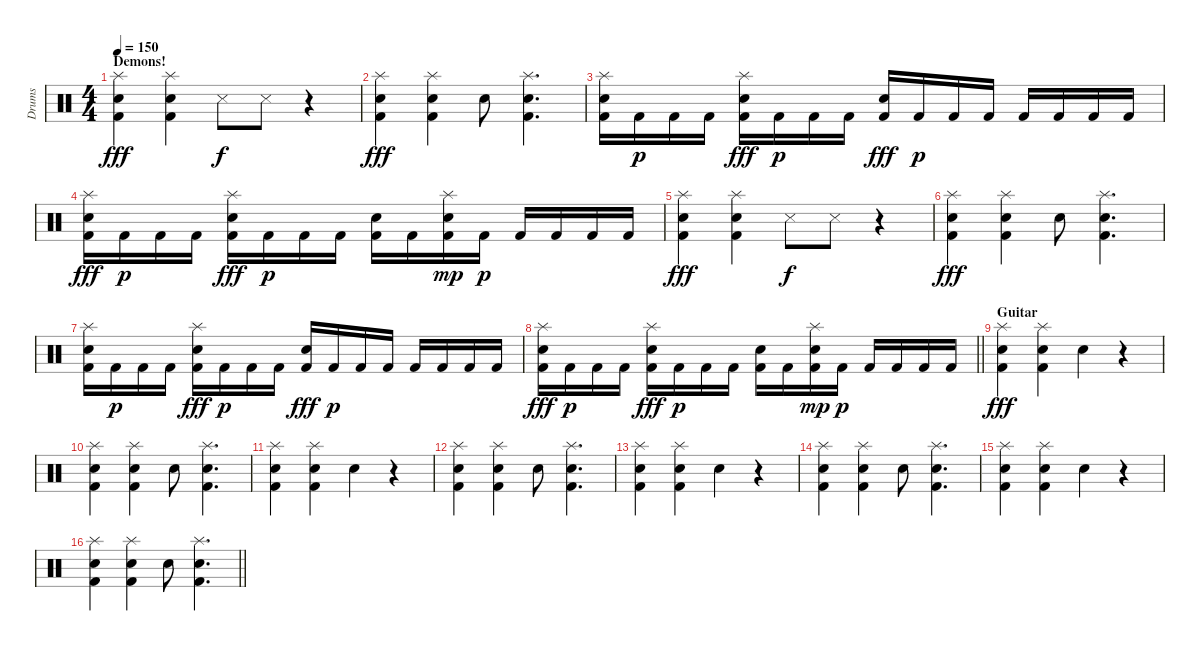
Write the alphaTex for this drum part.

\track ("Drums" "Drums") {instrument percussion}
\staff {score}
\articulation defaults
\ts (4 4)
\section ("" "Demons!")
\tempo 150
\clef neutral
\ks c
("Splash (hit)" "Electric Snare (hit)" "Kick (hit) 2").4{dy fff} ("Splash (hit)" "Electric Snare (hit)" "Kick (hit) 2").4 "Metronome (hit)".8{dy f} "Metronome (hit)".8 r.4 |
("Splash (hit)" "Electric Snare (hit)" "Kick (hit) 2").4{dy fff} ("Splash (hit)" "Electric Snare (hit)" "Kick (hit) 2").4 "Hand Clap (hit)".8 ("Splash (hit)" "Electric Snare (hit)" "Kick (hit) 2").4{d} |
("Splash (hit)" "Electric Snare (hit)" "Kick (hit) 2").16 "Kick (hit) 2".16{dy p} "Kick (hit) 2".16 "Kick (hit) 2".16 ("Splash (hit)" "Electric Snare (hit)" "Kick (hit) 2").16{dy fff} "Kick (hit) 2".16{dy p} "Kick (hit) 2".16 "Kick (hit) 2".16 ("Hand Clap (hit)" "Kick (hit) 2").16{dy fff} "Kick (hit) 2".16{dy p} "Kick (hit) 2".16 "Kick (hit) 2".16 "Kick (hit) 2".16 "Kick (hit) 2".16 "Kick (hit) 2".16 "Kick (hit) 2".16 |
("Splash (hit)" "Electric Snare (hit)" "Kick (hit) 2").16{dy fff} "Kick (hit) 2".16{dy p} "Kick (hit) 2".16 "Kick (hit) 2".16 ("Splash (hit)" "Electric Snare (hit)" "Kick (hit) 2").16{dy fff} "Kick (hit) 2".16{dy p} "Kick (hit) 2".16 "Kick (hit) 2".16 ("Hand Clap (hit)" "Kick (hit) 2").16 "Kick (hit) 2".16 ("Splash (hit)" "Electric Snare (hit)" "Kick (hit) 2").16{dy mp} "Kick (hit) 2".16{dy p} "Kick (hit) 2".16 "Kick (hit) 2".16 "Kick (hit) 2".16 "Kick (hit) 2".16 |
("Splash (hit)" "Electric Snare (hit)" "Kick (hit) 2").4{dy fff} ("Splash (hit)" "Electric Snare (hit)" "Kick (hit) 2").4 "Metronome (hit)".8{dy f} "Metronome (hit)".8 r.4 |
("Splash (hit)" "Electric Snare (hit)" "Kick (hit) 2").4{dy fff} ("Splash (hit)" "Electric Snare (hit)" "Kick (hit) 2").4 "Hand Clap (hit)".8 ("Splash (hit)" "Electric Snare (hit)" "Kick (hit) 2").4{d} |
("Splash (hit)" "Electric Snare (hit)" "Kick (hit) 2").16 "Kick (hit) 2".16{dy p} "Kick (hit) 2".16 "Kick (hit) 2".16 ("Splash (hit)" "Electric Snare (hit)" "Kick (hit) 2").16{dy fff} "Kick (hit) 2".16{dy p} "Kick (hit) 2".16 "Kick (hit) 2".16 ("Hand Clap (hit)" "Kick (hit) 2").16{dy fff} "Kick (hit) 2".16{dy p} "Kick (hit) 2".16 "Kick (hit) 2".16 "Kick (hit) 2".16 "Kick (hit) 2".16 "Kick (hit) 2".16 "Kick (hit) 2".16 |
\barLineRight lightlight
("Splash (hit)" "Electric Snare (hit)" "Kick (hit) 2").16{dy fff} "Kick (hit) 2".16{dy p} "Kick (hit) 2".16 "Kick (hit) 2".16 ("Splash (hit)" "Electric Snare (hit)" "Kick (hit) 2").16{dy fff} "Kick (hit) 2".16{dy p} "Kick (hit) 2".16 "Kick (hit) 2".16 ("Hand Clap (hit)" "Kick (hit) 2").16 "Kick (hit) 2".16 ("Splash (hit)" "Electric Snare (hit)" "Kick (hit) 2").16{dy mp} "Kick (hit) 2".16{dy p} "Kick (hit) 2".16 "Kick (hit) 2".16 "Kick (hit) 2".16 "Kick (hit) 2".16 |
\section ("" "Guitar")
("Splash (hit)" "Electric Snare (hit)" "Kick (hit) 2").4{dy fff} ("Splash (hit)" "Electric Snare (hit)" "Kick (hit) 2").4 "Hand Clap (hit)".4 r.4 |
("Splash (hit)" "Electric Snare (hit)" "Kick (hit) 2").4 ("Splash (hit)" "Electric Snare (hit)" "Kick (hit) 2").4 "Hand Clap (hit)".8 ("Splash (hit)" "Electric Snare (hit)" "Kick (hit) 2").4{d} |
("Splash (hit)" "Electric Snare (hit)" "Kick (hit) 2").4 ("Splash (hit)" "Electric Snare (hit)" "Kick (hit) 2").4 "Hand Clap (hit)".4 r.4 |
("Splash (hit)" "Electric Snare (hit)" "Kick (hit) 2").4 ("Splash (hit)" "Electric Snare (hit)" "Kick (hit) 2").4 "Hand Clap (hit)".8 ("Splash (hit)" "Electric Snare (hit)" "Kick (hit) 2").4{d} |
("Splash (hit)" "Electric Snare (hit)" "Kick (hit) 2").4 ("Splash (hit)" "Electric Snare (hit)" "Kick (hit) 2").4 "Hand Clap (hit)".4 r.4 |
("Splash (hit)" "Electric Snare (hit)" "Kick (hit) 2").4 ("Splash (hit)" "Electric Snare (hit)" "Kick (hit) 2").4 "Hand Clap (hit)".8 ("Splash (hit)" "Electric Snare (hit)" "Kick (hit) 2").4{d} |
("Splash (hit)" "Electric Snare (hit)" "Kick (hit) 2").4 ("Splash (hit)" "Electric Snare (hit)" "Kick (hit) 2").4 "Hand Clap (hit)".4 r.4 |
\barLineRight lightlight
("Splash (hit)" "Electric Snare (hit)" "Kick (hit) 2").4 ("Splash (hit)" "Electric Snare (hit)" "Kick (hit) 2").4 "Hand Clap (hit)".8 ("Splash (hit)" "Electric Snare (hit)" "Kick (hit) 2").4{d}
